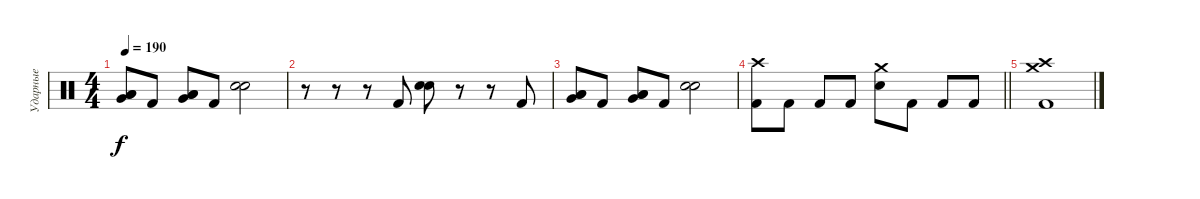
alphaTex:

\track ("Ударные" "Ударные") {instrument percussion}
\staff {score}
\articulation defaults
\ts (4 4)
\tempo 190
\clef neutral
\ks c
("Low Tom (hit)" "Low Floor Tom (hit)" "Very Low Tom (hit)").8{dy f} "Kick (hit) 2".8 ("Low Tom (hit)" "Low Floor Tom (hit)" "Very Low Tom (hit)").8 "Kick (hit) 2".8 ("Electric Snare (hit)" "Snare (hit) 2").2 |
r.8 r.8 r.8 "Kick (hit) 2".8 ("Electric Snare (hit)" "Snare (hit) 2").8 r.8 r.8 "Kick (hit) 2".8 |
("Low Tom (hit)" "Low Floor Tom (hit)" "Very Low Tom (hit)").8 "Kick (hit) 2".8 ("Low Tom (hit)" "Low Floor Tom (hit)" "Very Low Tom (hit)").8 "Kick (hit) 2".8 ("Electric Snare (hit)" "Snare (hit) 2").2 |
\barLineRight lightlight
("Crash high (hit)" "Kick (hit) 2").8 "Kick (hit) 2".8 "Kick (hit) 2".8 "Kick (hit) 2".8 ("Crash medium (hit)" "Snare (hit) 2").8 "Kick (hit) 2".8 "Kick (hit) 2".8 "Kick (hit) 2".8 |
("Crash high (hit)" "Crash medium (hit)" "Kick (hit) 2").1
